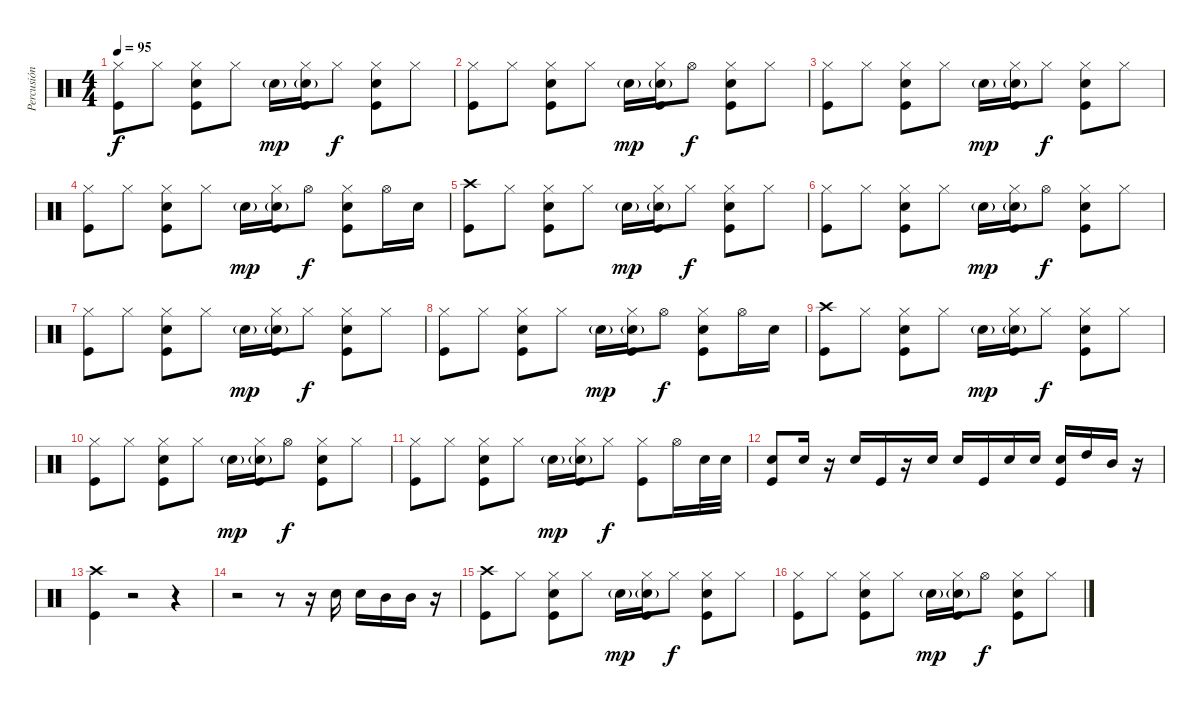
\track ("Percusión" "Percusión") {instrument percussion}
\staff {score}
\articulation defaults
\ts (4 4)
\tempo 95
\clef neutral
\ks c
("Hi-Hat (closed)" "Kick (hit)").8{dy f} "Hi-Hat (closed)".8 ("Hi-Hat (closed)" "Snare (hit) 2" "Kick (hit)").8 "Hi-Hat (closed)".8 "Snare (hit) 2"{g}.16{dy mp} ("Hi-Hat (closed)" "Snare (hit) 2"{g} "Kick (hit)").16 "Hi-Hat (closed)".8{dy f} ("Hi-Hat (closed)" "Snare (hit) 2" "Kick (hit)").8 "Hi-Hat (closed)".8 |
("Hi-Hat (closed)" "Kick (hit)").8 "Hi-Hat (closed)".8 ("Hi-Hat (closed)" "Snare (hit) 2" "Kick (hit)").8 "Hi-Hat (closed)".8 "Snare (hit) 2"{g}.16{dy mp} ("Hi-Hat (closed)" "Snare (hit) 2"{g} "Kick (hit)").16 "Hi-Hat (open)".8{dy f} ("Hi-Hat (closed)" "Snare (hit) 2" "Kick (hit)").8 "Hi-Hat (closed)".8 |
("Hi-Hat (closed)" "Kick (hit)").8 "Hi-Hat (closed)".8 ("Hi-Hat (closed)" "Snare (hit) 2" "Kick (hit)").8 "Hi-Hat (closed)".8 "Snare (hit) 2"{g}.16{dy mp} ("Hi-Hat (closed)" "Snare (hit) 2"{g} "Kick (hit)").16 "Hi-Hat (closed)".8{dy f} ("Hi-Hat (closed)" "Snare (hit) 2" "Kick (hit)").8 "Hi-Hat (closed)".8 |
("Hi-Hat (closed)" "Kick (hit)").8 "Hi-Hat (closed)".8 ("Hi-Hat (closed)" "Snare (hit) 2" "Kick (hit)").8 "Hi-Hat (closed)".8 "Snare (hit) 2"{g}.16{dy mp} ("Hi-Hat (closed)" "Snare (hit) 2"{g} "Kick (hit)").16 "Hi-Hat (open)".8{dy f} ("Hi-Hat (closed)" "Snare (hit) 2" "Kick (hit)").8 "Hi-Hat (open)".16 "Snare (hit) 2".16 |
("Crash high (hit)" "Kick (hit)").8 "Hi-Hat (closed)".8 ("Hi-Hat (closed)" "Snare (hit) 2" "Kick (hit)").8 "Hi-Hat (closed)".8 "Snare (hit) 2"{g}.16{dy mp} ("Hi-Hat (closed)" "Snare (hit) 2"{g} "Kick (hit)").16 "Hi-Hat (closed)".8{dy f} ("Hi-Hat (closed)" "Snare (hit) 2" "Kick (hit)").8 "Hi-Hat (closed)".8 |
("Hi-Hat (closed)" "Kick (hit)").8 "Hi-Hat (closed)".8 ("Hi-Hat (closed)" "Snare (hit) 2" "Kick (hit)").8 "Hi-Hat (closed)".8 "Snare (hit) 2"{g}.16{dy mp} ("Hi-Hat (closed)" "Snare (hit) 2"{g} "Kick (hit)").16 "Hi-Hat (open)".8{dy f} ("Hi-Hat (closed)" "Snare (hit) 2" "Kick (hit)").8 "Hi-Hat (closed)".8 |
("Hi-Hat (closed)" "Kick (hit)").8 "Hi-Hat (closed)".8 ("Hi-Hat (closed)" "Snare (hit) 2" "Kick (hit)").8 "Hi-Hat (closed)".8 "Snare (hit) 2"{g}.16{dy mp} ("Hi-Hat (closed)" "Snare (hit) 2"{g} "Kick (hit)").16 "Hi-Hat (closed)".8{dy f} ("Hi-Hat (closed)" "Snare (hit) 2" "Kick (hit)").8 "Hi-Hat (closed)".8 |
("Hi-Hat (closed)" "Kick (hit)").8 "Hi-Hat (closed)".8 ("Hi-Hat (closed)" "Snare (hit) 2" "Kick (hit)").8 "Hi-Hat (closed)".8 "Snare (hit) 2"{g}.16{dy mp} ("Hi-Hat (closed)" "Snare (hit) 2"{g} "Kick (hit)").16 "Hi-Hat (open)".8{dy f} ("Hi-Hat (closed)" "Snare (hit) 2" "Kick (hit)").8 "Hi-Hat (open)".16 "Snare (hit) 2".16 |
("Crash high (hit)" "Kick (hit)").8 "Hi-Hat (closed)".8 ("Hi-Hat (closed)" "Snare (hit) 2" "Kick (hit)").8 "Hi-Hat (closed)".8 "Snare (hit) 2"{g}.16{dy mp} ("Hi-Hat (closed)" "Snare (hit) 2"{g} "Kick (hit)").16 "Hi-Hat (closed)".8{dy f} ("Hi-Hat (closed)" "Snare (hit) 2" "Kick (hit)").8 "Hi-Hat (closed)".8 |
("Hi-Hat (closed)" "Kick (hit)").8 "Hi-Hat (closed)".8 ("Hi-Hat (closed)" "Snare (hit) 2" "Kick (hit)").8 "Hi-Hat (closed)".8 "Snare (hit) 2"{g}.16{dy mp} ("Hi-Hat (closed)" "Snare (hit) 2"{g} "Kick (hit)").16 "Hi-Hat (open)".8{dy f} ("Hi-Hat (closed)" "Snare (hit) 2" "Kick (hit)").8 "Hi-Hat (closed)".8 |
("Hi-Hat (closed)" "Kick (hit)").8 "Hi-Hat (closed)".8 ("Hi-Hat (closed)" "Snare (hit) 2" "Kick (hit)").8 "Hi-Hat (closed)".8 "Snare (hit) 2"{g}.16{dy mp} ("Hi-Hat (closed)" "Snare (hit) 2"{g} "Kick (hit)").16 "Hi-Hat (closed)".8{dy f} ("Hi-Hat (closed)" "Kick (hit)").8 "Hi-Hat (open)".16 "Snare (hit) 2".32 "Snare (hit) 2".32 |
("Snare (hit) 2" "Kick (hit)").8 "Snare (hit) 2".16 r.16 "Snare (hit) 2".16 "Kick (hit)".16 r.16 "Snare (hit) 2".16 "Snare (hit) 2".16 "Kick (hit)".16 "Snare (hit) 2".16 "Snare (hit) 2".16 ("Snare (hit) 2" "Kick (hit)").16 "High Tom (hit)".16 "Mid Tom (hit)".16 r.16 |
("Crash high (hit)" "Kick (hit)").4 r.2 r.4 |
r.2 r.8 r.16 "Snare (hit) 2".16 "Snare (hit) 2".16 "Mid Tom (hit)".16 "Mid Tom (hit)".16 r.16 |
("Crash high (hit)" "Kick (hit)").8 "Hi-Hat (closed)".8 ("Hi-Hat (closed)" "Snare (hit) 2" "Kick (hit)").8 "Hi-Hat (closed)".8 "Snare (hit) 2"{g}.16{dy mp} ("Hi-Hat (closed)" "Snare (hit) 2"{g} "Kick (hit)").16 "Hi-Hat (closed)".8{dy f} ("Hi-Hat (closed)" "Snare (hit) 2" "Kick (hit)").8 "Hi-Hat (closed)".8 |
("Hi-Hat (closed)" "Kick (hit)").8 "Hi-Hat (closed)".8 ("Hi-Hat (closed)" "Snare (hit) 2" "Kick (hit)").8 "Hi-Hat (closed)".8 "Snare (hit) 2"{g}.16{dy mp} ("Hi-Hat (closed)" "Snare (hit) 2"{g} "Kick (hit)").16 "Hi-Hat (open)".8{dy f} ("Hi-Hat (closed)" "Snare (hit) 2" "Kick (hit)").8 "Hi-Hat (closed)".8
